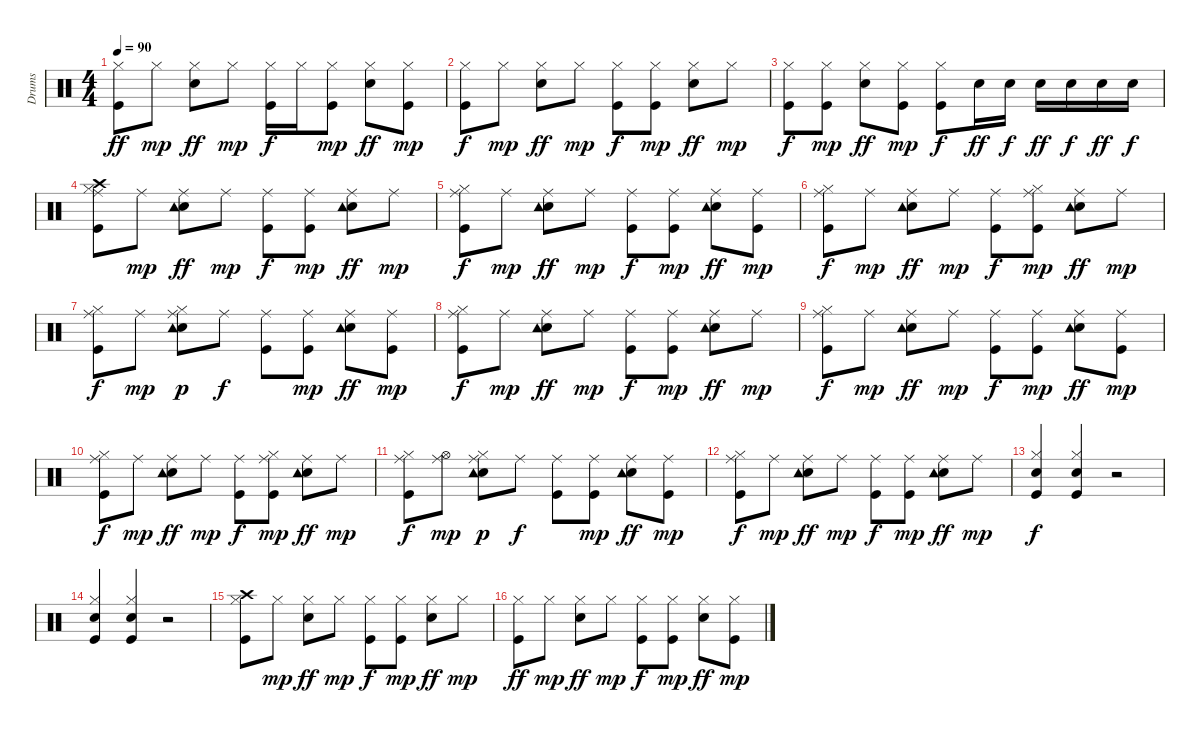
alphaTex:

\track ("Drums   " "Drums   ") {instrument percussion}
\staff {score}
\articulation defaults
\ts (4 4)
\tempo 90
\clef neutral
\ks c
("Kick (hit)" "Hi-Hat (closed)").8{dy ff} "Hi-Hat (closed)".8{dy mp} ("Snare (hit) 2" "Hi-Hat (closed)").8{dy ff} "Hi-Hat (closed)".8{dy mp} ("Kick (hit)" "Hi-Hat (closed)").16{dy f} "Hi-Hat (closed)".16 ("Kick (hit)" "Hi-Hat (closed)").8{dy mp} ("Snare (hit) 2" "Hi-Hat (closed)").8{dy ff} ("Kick (hit)" "Hi-Hat (closed)").8{dy mp} |
("Kick (hit)" "Hi-Hat (closed)").8{dy f} "Hi-Hat (closed)".8{dy mp} ("Snare (hit) 2" "Hi-Hat (closed)").8{dy ff} "Hi-Hat (closed)".8{dy mp} ("Kick (hit)" "Hi-Hat (closed)").8{dy f} ("Kick (hit)" "Hi-Hat (closed)").8{dy mp} ("Snare (hit) 2" "Hi-Hat (closed)").8{dy ff} "Hi-Hat (closed)".8{dy mp} |
("Kick (hit)" "Hi-Hat (closed)").8{dy f} ("Kick (hit)" "Hi-Hat (closed)").8{dy mp} ("Snare (hit) 2" "Hi-Hat (closed)").8{dy ff} ("Kick (hit)" "Hi-Hat (closed)").8{dy mp} ("Kick (hit)" "Hi-Hat (closed)").8{dy f} "Snare (hit) 2".16{dy ff} "Snare (hit) 2".16{dy f} "Snare (hit) 2".16{dy ff} "Snare (hit) 2".16{dy f} "Snare (hit) 2".16{dy ff} "Snare (hit) 2".16{dy f} |
("Kick (hit)" "Hi-Hat (closed)" "Crash high (hit)" "Ride (middle)").8 "Ride (middle)".8{dy mp} ("Snare (hit) 2" "Tambourine (hit)" "Ride (middle)").8{dy ff} "Ride (middle)".8{dy mp} ("Kick (hit)" "Ride (middle)").8{dy f} ("Kick (hit)" "Ride (middle)").8{dy mp} ("Snare (hit) 2" "Tambourine (hit)" "Ride (middle)").8{dy ff} "Ride (middle)".8{dy mp} |
("Kick (hit)" "Hi-Hat (closed)" "Ride (middle)").8{dy f} "Ride (middle)".8{dy mp} ("Snare (hit) 2" "Tambourine (hit)" "Ride (middle)").8{dy ff} "Ride (middle)".8{dy mp} ("Kick (hit)" "Ride (middle)").8{dy f} ("Kick (hit)" "Ride (middle)").8{dy mp} ("Snare (hit) 2" "Tambourine (hit)" "Ride (middle)").8{dy ff} ("Kick (hit)" "Ride (middle)").8{dy mp} |
("Kick (hit)" "Hi-Hat (closed)" "Ride (middle)").8{dy f} "Ride (middle)".8{dy mp} ("Snare (hit) 2" "Tambourine (hit)" "Ride (middle)").8{dy ff} "Ride (middle)".8{dy mp} ("Kick (hit)" "Ride (middle)").8{dy f} ("Kick (hit)" "Hi-Hat (closed)" "Ride (middle)").8{dy mp} ("Snare (hit) 2" "Tambourine (hit)" "Ride (middle)").8{dy ff} "Ride (middle)".8{dy mp} |
("Kick (hit)" "Hi-Hat (closed)" "Ride (middle)").8{dy f} "Ride (middle)".8{dy mp} ("Snare (hit) 2" "Hi-Hat (closed)" "Tambourine (hit)" "Ride (middle)").8{dy p} "Ride (middle)".8{dy f} ("Kick (hit)" "Ride (middle)").8 ("Kick (hit)" "Ride (middle)").8{dy mp} ("Snare (hit) 2" "Tambourine (hit)" "Ride (middle)").8{dy ff} ("Kick (hit)" "Ride (middle)").8{dy mp} |
("Kick (hit)" "Hi-Hat (closed)" "Ride (middle)").8{dy f} "Ride (middle)".8{dy mp} ("Snare (hit) 2" "Tambourine (hit)" "Ride (middle)").8{dy ff} "Ride (middle)".8{dy mp} ("Kick (hit)" "Ride (middle)").8{dy f} ("Kick (hit)" "Ride (middle)").8{dy mp} ("Snare (hit) 2" "Tambourine (hit)" "Ride (middle)").8{dy ff} "Ride (middle)".8{dy mp} |
("Kick (hit)" "Hi-Hat (closed)" "Ride (middle)").8{dy f} "Ride (middle)".8{dy mp} ("Snare (hit) 2" "Tambourine (hit)" "Ride (middle)").8{dy ff} "Ride (middle)".8{dy mp} ("Kick (hit)" "Ride (middle)").8{dy f} ("Kick (hit)" "Ride (middle)").8{dy mp} ("Snare (hit) 2" "Tambourine (hit)" "Ride (middle)").8{dy ff} ("Kick (hit)" "Ride (middle)").8{dy mp} |
("Kick (hit)" "Hi-Hat (closed)" "Ride (middle)").8{dy f} "Ride (middle)".8{dy mp} ("Snare (hit) 2" "Tambourine (hit)" "Ride (middle)").8{dy ff} "Ride (middle)".8{dy mp} ("Kick (hit)" "Ride (middle)").8{dy f} ("Kick (hit)" "Hi-Hat (closed)" "Ride (middle)").8{dy mp} ("Snare (hit) 2" "Tambourine (hit)" "Ride (middle)").8{dy ff} "Ride (middle)".8{dy mp} |
("Kick (hit)" "Hi-Hat (closed)" "Ride (middle)").8{dy f} ("Hi-Hat (open)" "Ride (middle)").8{dy mp} ("Snare (hit) 2" "Hi-Hat (closed)" "Tambourine (hit)" "Ride (middle)").8{dy p} "Ride (middle)".8{dy f} ("Kick (hit)" "Ride (middle)").8 ("Kick (hit)" "Ride (middle)").8{dy mp} ("Snare (hit) 2" "Tambourine (hit)" "Ride (middle)").8{dy ff} ("Kick (hit)" "Ride (middle)").8{dy mp} |
("Kick (hit)" "Hi-Hat (closed)" "Ride (middle)").8{dy f} "Ride (middle)".8{dy mp} ("Snare (hit) 2" "Tambourine (hit)" "Ride (middle)").8{dy ff} "Ride (middle)".8{dy mp} ("Kick (hit)" "Ride (middle)").8{dy f} ("Kick (hit)" "Ride (middle)").8{dy mp} ("Snare (hit) 2" "Tambourine (hit)" "Ride (middle)").8{dy ff} "Ride (middle)".8{dy mp} |
("Kick (hit)" "Snare (hit) 2" "Hi-Hat (closed)").4{dy f} ("Kick (hit)" "Snare (hit) 2" "Hi-Hat (closed)").4 r.2 |
("Kick (hit)" "Snare (hit) 2" "Hi-Hat (closed)").4 ("Kick (hit)" "Snare (hit) 2" "Hi-Hat (closed)").4 r.2 |
("Kick (hit)" "Hi-Hat (closed)" "Crash high (hit)").8 "Hi-Hat (closed)".8{dy mp} ("Snare (hit) 2" "Hi-Hat (closed)").8{dy ff} "Hi-Hat (closed)".8{dy mp} ("Kick (hit)" "Hi-Hat (closed)").8{dy f} ("Kick (hit)" "Hi-Hat (closed)").8{dy mp} ("Snare (hit) 2" "Hi-Hat (closed)").8{dy ff} "Hi-Hat (closed)".8{dy mp} |
("Kick (hit)" "Hi-Hat (closed)").8{dy ff} "Hi-Hat (closed)".8{dy mp} ("Snare (hit) 2" "Hi-Hat (closed)").8{dy ff} "Hi-Hat (closed)".8{dy mp} ("Kick (hit)" "Hi-Hat (closed)").8{dy f} ("Kick (hit)" "Hi-Hat (closed)").8{dy mp} ("Snare (hit) 2" "Hi-Hat (closed)").8{dy ff} ("Kick (hit)" "Hi-Hat (closed)").8{dy mp}
